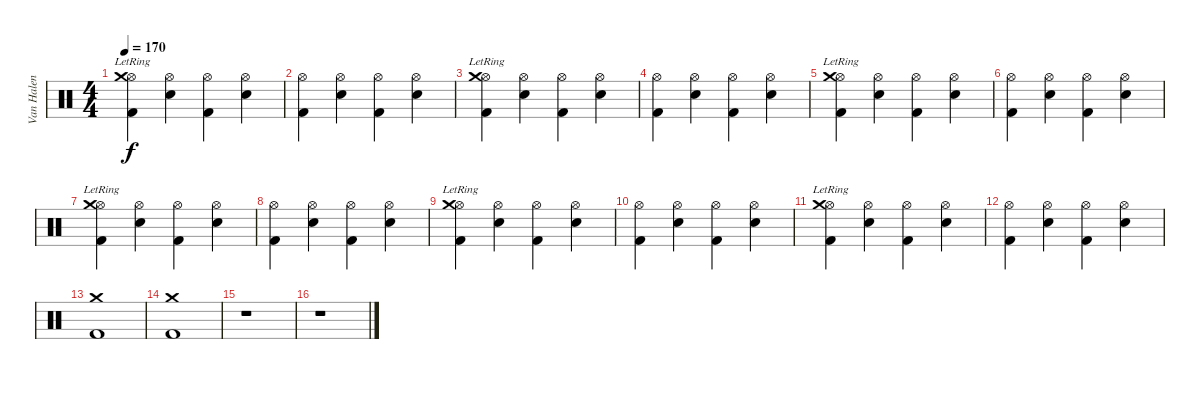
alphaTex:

\track ("Van Halen" "Van Halen") {instrument percussion}
\staff {score}
\articulation defaults
\ts (4 4)
\tempo 170
\clef neutral
\ks c
("Kick (hit) 2" "Hi-Hat (open)" "Crash medium (hit)"{lr}).4{dy f} ("Snare (hit) 2" "Hi-Hat (open)").4 ("Kick (hit) 2" "Hi-Hat (open)").4 ("Snare (hit) 2" "Hi-Hat (open)").4 |
("Kick (hit) 2" "Hi-Hat (open)").4 ("Snare (hit) 2" "Hi-Hat (open)").4 ("Kick (hit) 2" "Hi-Hat (open)").4 ("Snare (hit) 2" "Hi-Hat (open)").4 |
("Kick (hit) 2" "Hi-Hat (open)" "Crash medium (hit)"{lr}).4 ("Snare (hit) 2" "Hi-Hat (open)").4 ("Kick (hit) 2" "Hi-Hat (open)").4 ("Snare (hit) 2" "Hi-Hat (open)").4 |
("Kick (hit) 2" "Hi-Hat (open)").4 ("Snare (hit) 2" "Hi-Hat (open)").4 ("Kick (hit) 2" "Hi-Hat (open)").4 ("Snare (hit) 2" "Hi-Hat (open)").4 |
("Kick (hit) 2" "Hi-Hat (open)" "Crash medium (hit)"{lr}).4 ("Snare (hit) 2" "Hi-Hat (open)").4 ("Kick (hit) 2" "Hi-Hat (open)").4 ("Snare (hit) 2" "Hi-Hat (open)").4 |
("Kick (hit) 2" "Hi-Hat (open)").4 ("Snare (hit) 2" "Hi-Hat (open)").4 ("Kick (hit) 2" "Hi-Hat (open)").4 ("Snare (hit) 2" "Hi-Hat (open)").4 |
("Kick (hit) 2" "Hi-Hat (open)" "Crash medium (hit)"{lr}).4 ("Snare (hit) 2" "Hi-Hat (open)").4 ("Kick (hit) 2" "Hi-Hat (open)").4 ("Snare (hit) 2" "Hi-Hat (open)").4 |
("Kick (hit) 2" "Hi-Hat (open)").4 ("Snare (hit) 2" "Hi-Hat (open)").4 ("Kick (hit) 2" "Hi-Hat (open)").4 ("Snare (hit) 2" "Hi-Hat (open)").4 |
("Kick (hit) 2" "Hi-Hat (open)" "Crash medium (hit)"{lr}).4 ("Snare (hit) 2" "Hi-Hat (open)").4 ("Kick (hit) 2" "Hi-Hat (open)").4 ("Snare (hit) 2" "Hi-Hat (open)").4 |
("Kick (hit) 2" "Hi-Hat (open)").4 ("Snare (hit) 2" "Hi-Hat (open)").4 ("Kick (hit) 2" "Hi-Hat (open)").4 ("Snare (hit) 2" "Hi-Hat (open)").4 |
("Kick (hit) 2" "Hi-Hat (open)" "Crash medium (hit)"{lr}).4 ("Snare (hit) 2" "Hi-Hat (open)").4 ("Kick (hit) 2" "Hi-Hat (open)").4 ("Snare (hit) 2" "Hi-Hat (open)").4 |
("Kick (hit) 2" "Hi-Hat (open)").4 ("Snare (hit) 2" "Hi-Hat (open)").4 ("Kick (hit) 2" "Hi-Hat (open)").4 ("Snare (hit) 2" "Hi-Hat (open)").4 |
("Kick (hit) 2" "Crash medium (hit)").1 |
("Kick (hit) 2" "Crash medium (hit)").1 |
r.1 |
r.1
